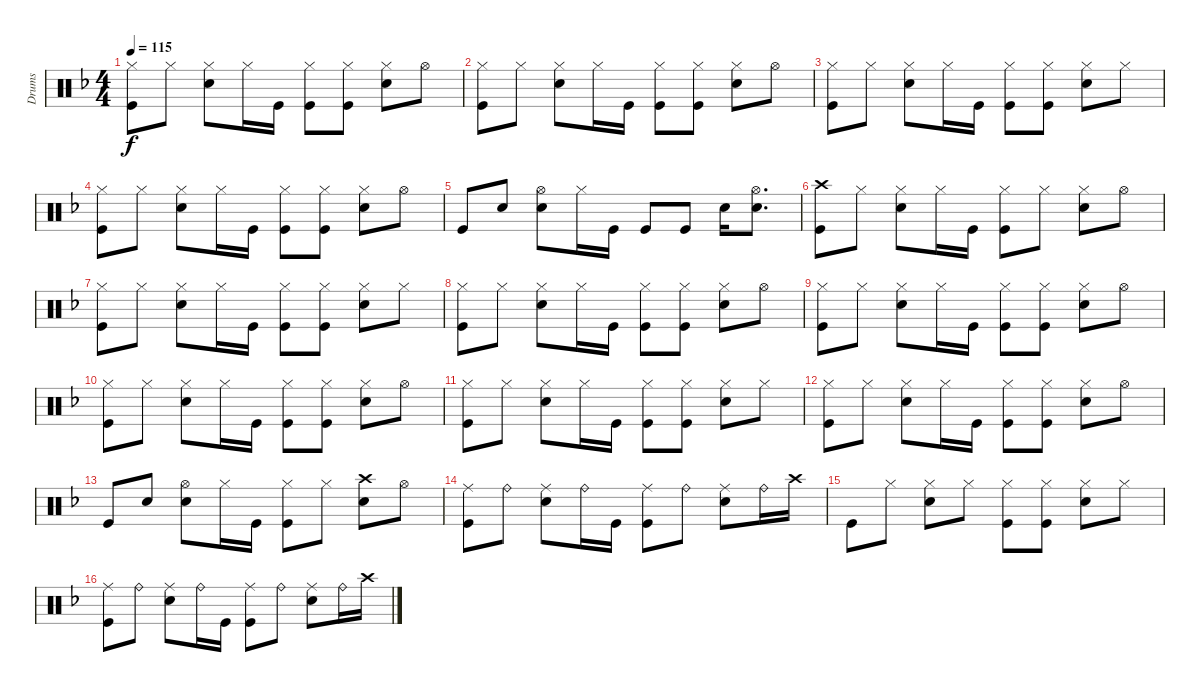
\track ("Drums" "Drums") {instrument percussion}
\staff {score}
\articulation defaults
\ts (4 4)
\tempo 115
\clef neutral
\ks f
("Hi-Hat (closed)" "Kick (hit)").8{dy f} "Hi-Hat (closed)".8 ("Hi-Hat (closed)" "Snare (hit) 2").8 "Hi-Hat (closed)".16 "Kick (hit)".16 ("Hi-Hat (closed)" "Kick (hit)").8 ("Hi-Hat (closed)" "Kick (hit)").8 ("Hi-Hat (closed)" "Snare (hit) 2").8 "Hi-Hat (open)".8 |
("Hi-Hat (closed)" "Kick (hit)").8 "Hi-Hat (closed)".8 ("Hi-Hat (closed)" "Snare (hit) 2").8 "Hi-Hat (closed)".16 "Kick (hit)".16 ("Hi-Hat (closed)" "Kick (hit)").8 ("Hi-Hat (closed)" "Kick (hit)").8 ("Hi-Hat (closed)" "Snare (hit) 2").8 "Hi-Hat (open)".8 |
("Hi-Hat (closed)" "Kick (hit)").8 "Hi-Hat (closed)".8 ("Hi-Hat (closed)" "Snare (hit) 2").8 "Hi-Hat (closed)".16 "Kick (hit)".16 ("Hi-Hat (closed)" "Kick (hit)").8 ("Hi-Hat (closed)" "Kick (hit)").8 ("Hi-Hat (closed)" "Snare (hit) 2").8 "Hi-Hat (closed)".8 |
("Hi-Hat (closed)" "Kick (hit)").8 "Hi-Hat (closed)".8 ("Hi-Hat (closed)" "Snare (hit) 2").8 "Hi-Hat (closed)".16 "Kick (hit)".16 ("Hi-Hat (closed)" "Kick (hit)").8 ("Hi-Hat (closed)" "Kick (hit)").8 ("Hi-Hat (closed)" "Snare (hit) 2").8 "Hi-Hat (open)".8 |
"Kick (hit)".8 "Snare (hit) 2".8 ("Snare (hit) 2" "Hi-Hat (open)").8 "Hi-Hat (closed)".16 "Kick (hit)".16 "Kick (hit)".8 "Kick (hit)".8 "Snare (hit) 2".16 ("Snare (hit) 2" "Hi-Hat (open)").8{d} |
("Crash high (hit)" "Kick (hit)").8 "Hi-Hat (closed)".8 ("Snare (hit) 2" "Hi-Hat (closed)").8 "Hi-Hat (closed)".16 "Kick (hit)".16 ("Hi-Hat (closed)" "Kick (hit)").8 "Hi-Hat (closed)".8 ("Hi-Hat (closed)" "Snare (hit) 2").8 "Hi-Hat (open)".8 |
("Hi-Hat (closed)" "Kick (hit)").8 "Hi-Hat (closed)".8 ("Hi-Hat (closed)" "Snare (hit) 2").8 "Hi-Hat (closed)".16 "Kick (hit)".16 ("Hi-Hat (closed)" "Kick (hit)").8 ("Hi-Hat (closed)" "Kick (hit)").8 ("Hi-Hat (closed)" "Snare (hit) 2").8 "Hi-Hat (closed)".8 |
("Hi-Hat (closed)" "Kick (hit)").8 "Hi-Hat (closed)".8 ("Hi-Hat (closed)" "Snare (hit) 2").8 "Hi-Hat (closed)".16 "Kick (hit)".16 ("Hi-Hat (closed)" "Kick (hit)").8 ("Hi-Hat (closed)" "Kick (hit)").8 ("Hi-Hat (closed)" "Snare (hit) 2").8 "Hi-Hat (open)".8 |
("Hi-Hat (closed)" "Kick (hit)").8 "Hi-Hat (closed)".8 ("Hi-Hat (closed)" "Snare (hit) 2").8 "Hi-Hat (closed)".16 "Kick (hit)".16 ("Hi-Hat (closed)" "Kick (hit)").8 ("Hi-Hat (closed)" "Kick (hit)").8 ("Hi-Hat (closed)" "Snare (hit) 2").8 "Hi-Hat (open)".8 |
("Hi-Hat (closed)" "Kick (hit)").8 "Hi-Hat (closed)".8 ("Hi-Hat (closed)" "Snare (hit) 2").8 "Hi-Hat (closed)".16 "Kick (hit)".16 ("Hi-Hat (closed)" "Kick (hit)").8 ("Hi-Hat (closed)" "Kick (hit)").8 ("Hi-Hat (closed)" "Snare (hit) 2").8 "Hi-Hat (open)".8 |
("Hi-Hat (closed)" "Kick (hit)").8 "Hi-Hat (closed)".8 ("Hi-Hat (closed)" "Snare (hit) 2").8 "Hi-Hat (closed)".16 "Kick (hit)".16 ("Hi-Hat (closed)" "Kick (hit)").8 ("Hi-Hat (closed)" "Kick (hit)").8 ("Hi-Hat (closed)" "Snare (hit) 2").8 "Hi-Hat (closed)".8 |
("Hi-Hat (closed)" "Kick (hit)").8 "Hi-Hat (closed)".8 ("Hi-Hat (closed)" "Snare (hit) 2").8 "Hi-Hat (closed)".16 "Kick (hit)".16 ("Hi-Hat (closed)" "Kick (hit)").8 ("Hi-Hat (closed)" "Kick (hit)").8 ("Hi-Hat (closed)" "Snare (hit) 2").8 "Hi-Hat (open)".8 |
"Kick (hit)".8 "Snare (hit) 2".8 ("Snare (hit) 2" "Hi-Hat (open)").8 "Hi-Hat (closed)".16 "Kick (hit)".16 ("Hi-Hat (closed)" "Kick (hit)").8 "Hi-Hat (closed)".8 ("Crash high (hit)" "Snare (hit) 2").8 "Hi-Hat (open)".8 |
("Ride (middle)" "Kick (hit)").8 "Ride (bell)".8 ("Ride (middle)" "Snare (hit) 2").8 "Ride (bell)".16 "Kick (hit)".16 ("Ride (middle)" "Kick (hit)").8 "Ride (bell)".8 ("Ride (middle)" "Snare (hit) 2").8 "Ride (bell)".16 "Crash high (hit)".16 |
"Kick (hit)".8 "Hi-Hat (closed)".8 ("Hi-Hat (closed)" "Snare (hit) 2").8 "Hi-Hat (closed)".8 ("Hi-Hat (closed)" "Kick (hit)").8 ("Hi-Hat (closed)" "Kick (hit)").8 ("Hi-Hat (closed)" "Snare (hit) 2").8 "Hi-Hat (closed)".8 |
("Ride (middle)" "Kick (hit)").8 "Ride (bell)".8 ("Ride (middle)" "Snare (hit) 2").8 "Ride (bell)".16 "Kick (hit)".16 ("Ride (middle)" "Kick (hit)").8 "Ride (bell)".8 ("Ride (middle)" "Snare (hit) 2").8 "Ride (bell)".16 "Crash high (hit)".16
